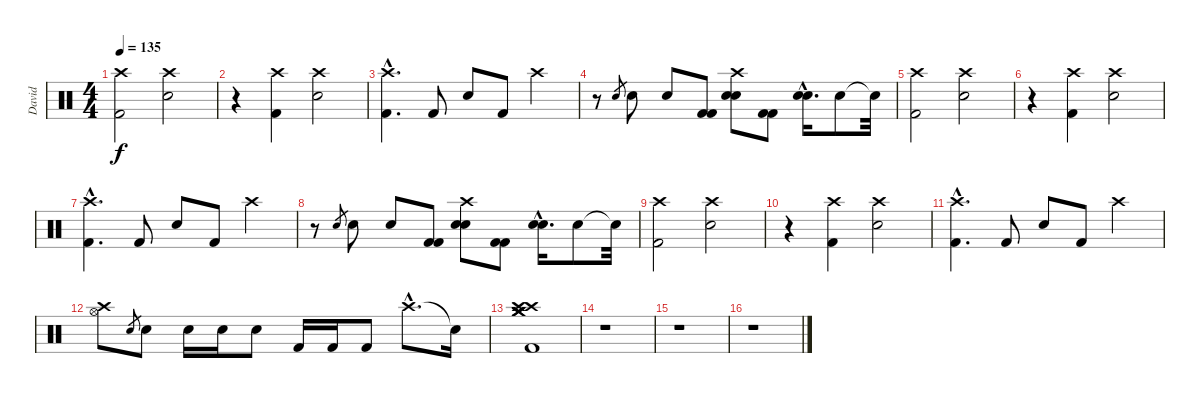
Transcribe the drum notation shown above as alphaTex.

\track ("David" "David") {instrument percussion}
\staff {score}
\articulation defaults
\ts (4 4)
\tempo 135
\clef neutral
\ks c
("Crash high (hit)" "Kick (hit) 2").2{dy f} ("Crash high (hit)" "Electric Snare (hit)").2 |
r.4 ("Crash high (hit)" "Kick (hit) 2").4 ("Crash high (hit)" "Electric Snare (hit)").2 |
("Crash high (hit)"{hac} "Kick (hit) 2"{hac}).4{d} "Kick (hit) 2".8 "Electric Snare (hit)".8 "Kick (hit) 2".8 "Crash high (hit)".4 |
r.8 "Electric Snare (hit)".8{gr} "Electric Snare (hit)".8 "Electric Snare (hit)".8 ("Kick (hit) 2" "Kick (hit) 2").8 ("Crash high (hit)" "Electric Snare (hit)" "Electric Snare (hit)").8 ("Kick (hit) 2" "Kick (hit) 2").8 ("Electric Snare (hit)"{hac} "Electric Snare (hit)"{hac}).16{d} "Electric Snare (hit)".8 "Snare (hit)"{t}.32 |
("Crash high (hit)" "Kick (hit) 2").2 ("Crash high (hit)" "Electric Snare (hit)").2 |
r.4 ("Crash high (hit)" "Kick (hit) 2").4 ("Crash high (hit)" "Electric Snare (hit)").2 |
("Crash high (hit)"{hac} "Kick (hit) 2"{hac}).4{d} "Kick (hit) 2".8 "Electric Snare (hit)".8 "Kick (hit) 2".8 "Crash high (hit)".4 |
r.8 "Electric Snare (hit)".8{gr} "Electric Snare (hit)".8 "Electric Snare (hit)".8 ("Kick (hit) 2" "Kick (hit) 2").8 ("Crash high (hit)" "Electric Snare (hit)" "Electric Snare (hit)").8 ("Kick (hit) 2" "Kick (hit) 2").8 ("Electric Snare (hit)"{hac} "Electric Snare (hit)"{hac}).16{d} "Electric Snare (hit)".8 "Snare (hit)"{t}.32 |
("Crash high (hit)" "Kick (hit) 2").2 ("Crash high (hit)" "Electric Snare (hit)").2 |
r.4 ("Crash high (hit)" "Kick (hit) 2").4 ("Crash high (hit)" "Electric Snare (hit)").2 |
("Crash high (hit)"{hac} "Kick (hit) 2"{hac}).4{d} "Kick (hit) 2".8 "Electric Snare (hit)".8 "Kick (hit) 2".8 "Crash high (hit)".4 |
("Crash high (hit)" "Hi-Hat (open)").8 "Electric Snare (hit)".8{gr} "Electric Snare (hit)".8 "Electric Snare (hit)".16 "Electric Snare (hit)".16 "Electric Snare (hit)".8 "Kick (hit) 2".16 "Kick (hit) 2".16 "Kick (hit) 2".8 "Crash high (hit)"{hac}.8{d} "Snare (hit)"{t}.16 |
("Crash high (hit)" "Crash medium (hit)" "Crash high (hit)" "Kick (hit) 2" "Crash medium (hit)" "Crash medium (hit)").1 |
r.1 |
r.1 |
r.1
